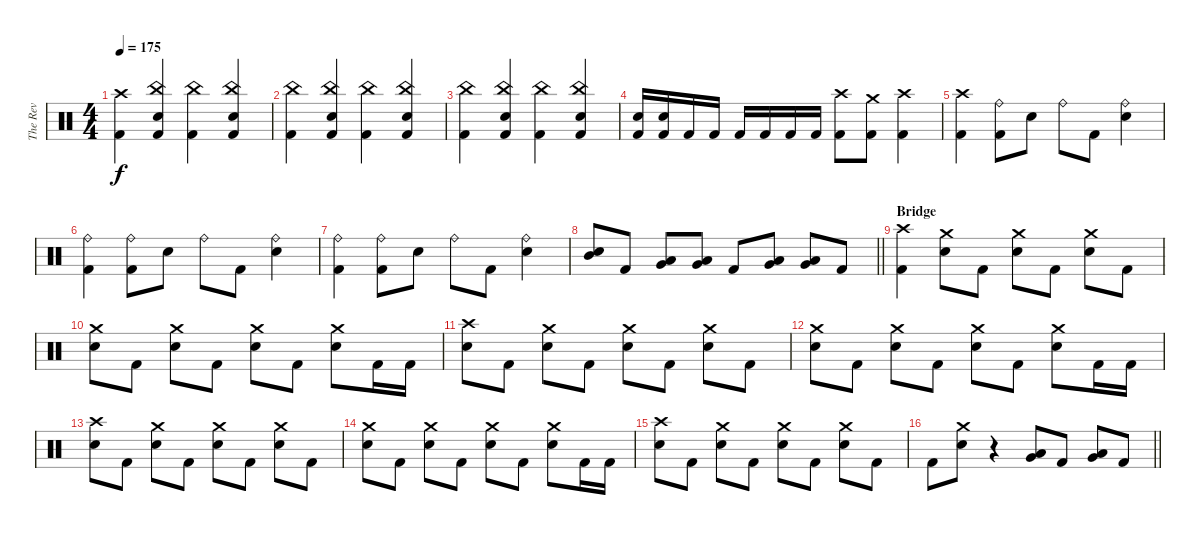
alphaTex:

\track ("The Rev" "The Rev") {instrument percussion}
\staff {score}
\articulation defaults
\ts (4 4)
\tempo 175
\clef neutral
\ks c
("Crash high (hit)" "Kick (hit) 2").4{dy f} ("China (hit)" "Snare (hit) 2" "Kick (hit) 2").4 ("China (hit)" "Kick (hit) 2").4 ("China (hit)" "Snare (hit) 2" "Kick (hit) 2").4 |
("China (hit)" "Kick (hit) 2").4 ("China (hit)" "Snare (hit) 2" "Kick (hit) 2").4 ("China (hit)" "Kick (hit) 2").4 ("China (hit)" "Snare (hit) 2" "Kick (hit) 2").4 |
("China (hit)" "Kick (hit) 2").4 ("China (hit)" "Snare (hit) 2" "Kick (hit) 2").4 ("China (hit)" "Kick (hit) 2").4 ("China (hit)" "Snare (hit) 2" "Kick (hit) 2").4 |
("Snare (hit) 2" "Kick (hit) 2").16 ("Snare (hit) 2" "Kick (hit) 2").16 "Kick (hit) 2".16 "Kick (hit) 2".16 "Kick (hit) 2".16 "Kick (hit) 2".16 "Kick (hit) 2".16 "Kick (hit) 2".16 ("Crash high (hit)" "Kick (hit) 2").8 ("Crash medium (hit)" "Kick (hit) 2").8 ("Crash high (hit)" "Kick (hit) 2").4 |
("Crash high (hit)" "Kick (hit) 2").4 ("Ride (bell)" "Kick (hit) 2").8 "Snare (hit) 2".8 "Ride (bell)".8 "Kick (hit) 2".8 ("Ride (bell)" "Snare (hit) 2").4 |
("Ride (bell)" "Kick (hit) 2").4 ("Ride (bell)" "Kick (hit) 2").8 "Snare (hit) 2".8 "Ride (bell)".8 "Kick (hit) 2".8 ("Ride (bell)" "Snare (hit) 2").4 |
("Ride (bell)" "Kick (hit) 2").4 ("Ride (bell)" "Kick (hit) 2").8 "Snare (hit) 2".8 "Ride (bell)".8 "Kick (hit) 2".8 ("Ride (bell)" "Snare (hit) 2").4 |
\barLineRight lightlight
("Mid Tom (hit)" "Snare (hit) 2").8 "Kick (hit) 2".8 ("Low Tom (hit)" "Very Low Tom (hit)").8 ("Low Tom (hit)" "Very Low Tom (hit)").8 "Kick (hit) 2".8 ("Very Low Tom (hit)" "Low Floor Tom (hit)").8 ("Very Low Tom (hit)" "Low Floor Tom (hit)").8 "Kick (hit) 2".8 |
\section ("" "Bridge")
("Crash high (hit)" "Kick (hit) 2").4 ("Crash medium (hit)" "Snare (hit) 2").8 "Kick (hit) 2".8 ("Crash medium (hit)" "Snare (hit) 2").8 "Kick (hit) 2".8 ("Crash medium (hit)" "Snare (hit) 2").8 "Kick (hit) 2".8 |
("Crash medium (hit)" "Snare (hit) 2").8 "Kick (hit) 2".8 ("Crash medium (hit)" "Snare (hit) 2").8 "Kick (hit) 2".8 ("Crash medium (hit)" "Snare (hit) 2").8 "Kick (hit) 2".8 ("Crash medium (hit)" "Snare (hit) 2").8 "Kick (hit) 2".16 "Kick (hit) 2".16 |
("Crash high (hit)" "Snare (hit) 2").8 "Kick (hit) 2".8 ("Crash medium (hit)" "Snare (hit) 2").8 "Kick (hit) 2".8 ("Crash medium (hit)" "Snare (hit) 2").8 "Kick (hit) 2".8 ("Crash medium (hit)" "Snare (hit) 2").8 "Kick (hit) 2".8 |
("Crash medium (hit)" "Snare (hit) 2").8 "Kick (hit) 2".8 ("Crash medium (hit)" "Snare (hit) 2").8 "Kick (hit) 2".8 ("Crash medium (hit)" "Snare (hit) 2").8 "Kick (hit) 2".8 ("Crash medium (hit)" "Snare (hit) 2").8 "Kick (hit) 2".16 "Kick (hit) 2".16 |
("Crash high (hit)" "Snare (hit) 2").8 "Kick (hit) 2".8 ("Crash medium (hit)" "Snare (hit) 2").8 "Kick (hit) 2".8 ("Crash medium (hit)" "Snare (hit) 2").8 "Kick (hit) 2".8 ("Crash medium (hit)" "Snare (hit) 2").8 "Kick (hit) 2".8 |
("Crash medium (hit)" "Snare (hit) 2").8 "Kick (hit) 2".8 ("Crash medium (hit)" "Snare (hit) 2").8 "Kick (hit) 2".8 ("Crash medium (hit)" "Snare (hit) 2").8 "Kick (hit) 2".8 ("Crash medium (hit)" "Snare (hit) 2").8 "Kick (hit) 2".16 "Kick (hit) 2".16 |
("Crash high (hit)" "Snare (hit) 2").8 "Kick (hit) 2".8 ("Crash medium (hit)" "Snare (hit) 2").8 "Kick (hit) 2".8 ("Crash medium (hit)" "Snare (hit) 2").8 "Kick (hit) 2".8 ("Crash medium (hit)" "Snare (hit) 2").8 "Kick (hit) 2".8 |
\barLineRight lightlight "Kick (hit) 2".8
("Crash medium (hit)" "Snare (hit) 2").8 r.4 ("Low Tom (hit)" "Very Low Tom (hit)").8 "Kick (hit) 2".8 ("Very Low Tom (hit)" "Low Floor Tom (hit)").8 "Kick (hit) 2".8
